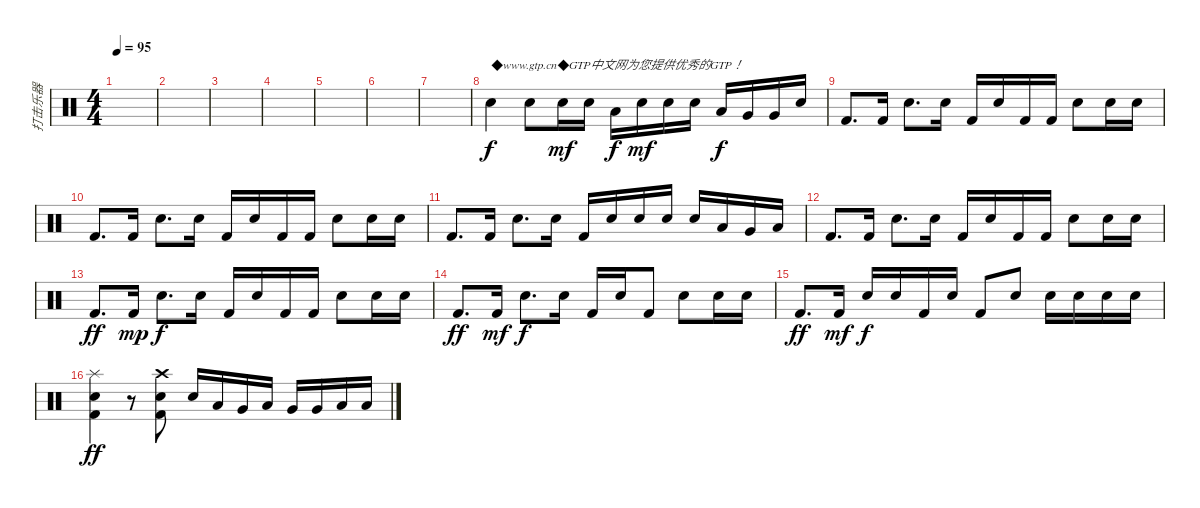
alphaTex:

\track ("打击乐器" "打击乐器") {instrument percussion}
\staff {score}
\articulation defaults
\ts (4 4)
\tempo 95
\clef neutral
\ks c
|
|
|
|
|
|
|
"Electric Snare (hit)".4{txt "◆www.gtp.cn◆GTP中文网为您提供优秀的GTP！"} "Electric Snare (hit)".8{dy f} "Electric Snare (hit)".16{dy mf} "Electric Snare (hit)".16 "Low Tom (hit)".16{dy f} "Electric Snare (hit)".16{dy mf} "Electric Snare (hit)".16 "Electric Snare (hit)".16 "Low Tom (hit)".16{dy f} "Very Low Tom (hit)".16 "Very Low Tom (hit)".16 "Electric Snare (hit)".16 |
"Kick (hit) 2".8{d} "Kick (hit) 2".16 "Electric Snare (hit)".8{d} "Electric Snare (hit)".16 "Kick (hit) 2".16 "Electric Snare (hit)".16 "Kick (hit) 2".16 "Kick (hit) 2".16 "Electric Snare (hit)".8 "Electric Snare (hit)".16 "Electric Snare (hit)".16 |
"Kick (hit) 2".8{d} "Kick (hit) 2".16 "Electric Snare (hit)".8{d} "Electric Snare (hit)".16 "Kick (hit) 2".16 "Electric Snare (hit)".16 "Kick (hit) 2".16 "Kick (hit) 2".16 "Electric Snare (hit)".8 "Electric Snare (hit)".16 "Electric Snare (hit)".16 |
"Kick (hit) 2".8{d} "Kick (hit) 2".16 "Electric Snare (hit)".8{d} "Electric Snare (hit)".16 "Kick (hit) 2".16 "Electric Snare (hit)".16 "Electric Snare (hit)".16 "Electric Snare (hit)".16 "Electric Snare (hit)".16 "Low Tom (hit)".16 "Very Low Tom (hit)".16 "Low Floor Tom (hit)".16 |
"Kick (hit) 2".8{d} "Kick (hit) 2".16 "Electric Snare (hit)".8{d} "Electric Snare (hit)".16 "Kick (hit) 2".16 "Electric Snare (hit)".16 "Kick (hit) 2".16 "Kick (hit) 2".16 "Electric Snare (hit)".8 "Electric Snare (hit)".16 "Electric Snare (hit)".16 |
"Kick (hit) 2".8{d dy ff} "Kick (hit) 2".16{dy mp} "Electric Snare (hit)".8{d dy f} "Electric Snare (hit)".16 "Kick (hit) 2".16 "Electric Snare (hit)".16 "Kick (hit) 2".16 "Kick (hit) 2".16 "Electric Snare (hit)".8 "Electric Snare (hit)".16 "Electric Snare (hit)".16 |
"Kick (hit) 2".8{d dy ff} "Kick (hit) 2".16{dy mf} "Electric Snare (hit)".8{d dy f} "Electric Snare (hit)".16 "Kick (hit) 2".16 "Electric Snare (hit)".16 "Kick (hit) 2".8 "Electric Snare (hit)".8 "Electric Snare (hit)".16 "Electric Snare (hit)".16 |
"Kick (hit) 2".8{d dy ff} "Kick (hit) 2".16{dy mf} "Electric Snare (hit)".16{dy f} "Electric Snare (hit)".16 "Kick (hit) 2".16 "Electric Snare (hit)".16 "Kick (hit) 2".8 "Electric Snare (hit)".8 "Electric Snare (hit)".16 "Electric Snare (hit)".16 "Electric Snare (hit)".16 "Electric Snare (hit)".16 |
("Kick (hit) 2" "Electric Snare (hit)" "Splash (hit)").4{dy ff} r.8 ("Kick (hit) 2" "Electric Snare (hit)" "Crash high (hit)").8 "Electric Snare (hit)".16 "Low Tom (hit)".16 "Very Low Tom (hit)".16 "Low Floor Tom (hit)".16 "Very Low Tom (hit)".16 "Very Low Tom (hit)".16 "Low Floor Tom (hit)".16 "Low Floor Tom (hit)".16
